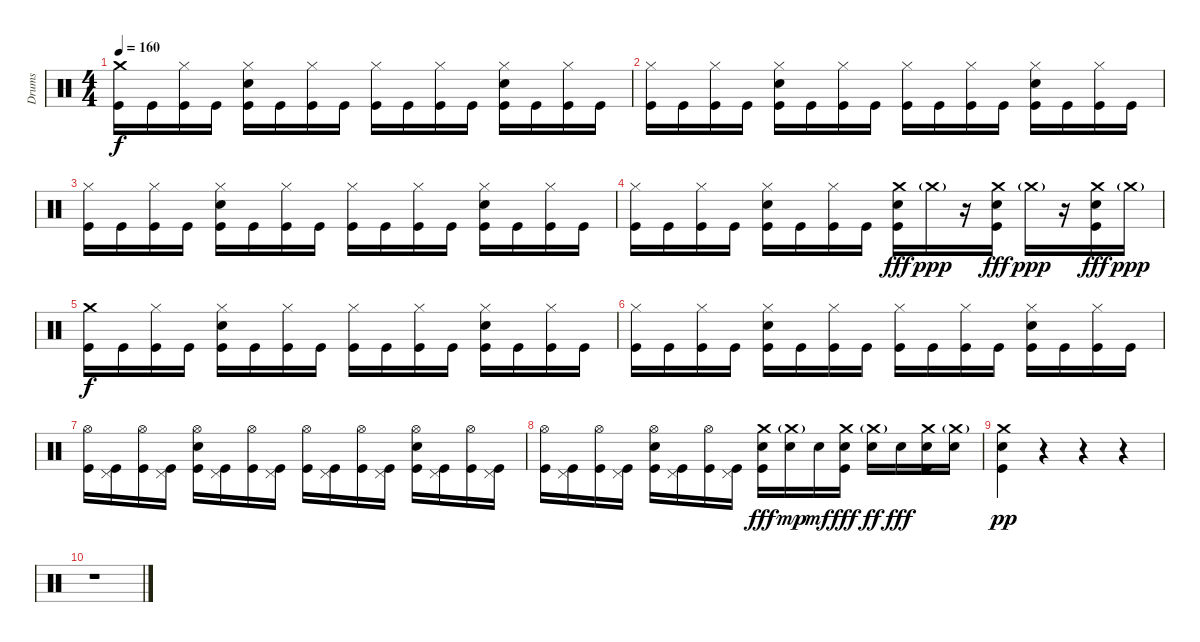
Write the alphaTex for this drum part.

\track ("Drums" "Drums") {instrument percussion}
\staff {score}
\articulation defaults
\ts (4 4)
\tempo 160
\clef neutral
\ks c
("Crash medium (hit)" "Kick (hit)").16{dy f} "Kick (hit)".16 ("Hi-Hat (closed)" "Kick (hit)").16 "Kick (hit)".16 ("Hi-Hat (closed)" "Electric Snare (hit)" "Kick (hit)").16 "Kick (hit)".16 ("Hi-Hat (closed)" "Kick (hit)").16 "Kick (hit)".16 ("Hi-Hat (closed)" "Kick (hit)").16 "Kick (hit)".16 ("Hi-Hat (closed)" "Kick (hit)").16 "Kick (hit)".16 ("Hi-Hat (closed)" "Electric Snare (hit)" "Kick (hit)").16 "Kick (hit)".16 ("Hi-Hat (closed)" "Kick (hit)").16 "Kick (hit)".16 |
("Hi-Hat (closed)" "Kick (hit)").16 "Kick (hit)".16 ("Hi-Hat (closed)" "Kick (hit)").16 "Kick (hit)".16 ("Hi-Hat (closed)" "Electric Snare (hit)" "Kick (hit)").16 "Kick (hit)".16 ("Hi-Hat (closed)" "Kick (hit)").16 "Kick (hit)".16 ("Hi-Hat (closed)" "Kick (hit)").16 "Kick (hit)".16 ("Hi-Hat (closed)" "Kick (hit)").16 "Kick (hit)".16 ("Hi-Hat (closed)" "Electric Snare (hit)" "Kick (hit)").16 "Kick (hit)".16 ("Hi-Hat (closed)" "Kick (hit)").16 "Kick (hit)".16 |
("Hi-Hat (closed)" "Kick (hit)").16 "Kick (hit)".16 ("Hi-Hat (closed)" "Kick (hit)").16 "Kick (hit)".16 ("Hi-Hat (closed)" "Electric Snare (hit)" "Kick (hit)").16 "Kick (hit)".16 ("Hi-Hat (closed)" "Kick (hit)").16 "Kick (hit)".16 ("Hi-Hat (closed)" "Kick (hit)").16 "Kick (hit)".16 ("Hi-Hat (closed)" "Kick (hit)").16 "Kick (hit)".16 ("Hi-Hat (closed)" "Electric Snare (hit)" "Kick (hit)").16 "Kick (hit)".16 ("Hi-Hat (closed)" "Kick (hit)").16 "Kick (hit)".16 |
("Hi-Hat (closed)" "Kick (hit)").16 "Kick (hit)".16 ("Hi-Hat (closed)" "Kick (hit)").16 "Kick (hit)".16 ("Hi-Hat (closed)" "Electric Snare (hit)" "Kick (hit)").16 "Kick (hit)".16 ("Hi-Hat (closed)" "Kick (hit)").16 "Kick (hit)".16 ("Crash medium (hit)" "Electric Snare (hit)" "Kick (hit)").16{dy fff} "Crash medium (hit)"{g}.16{dy ppp} r.16 ("Crash medium (hit)" "Electric Snare (hit)" "Kick (hit)").16{dy fff} "Crash medium (hit)"{g}.16{dy ppp} r.16 ("Crash medium (hit)" "Electric Snare (hit)" "Kick (hit)").16{dy fff} "Crash medium (hit)"{g}.16{dy ppp} |
("Crash medium (hit)" "Kick (hit)").16{dy f} "Kick (hit)".16 ("Hi-Hat (closed)" "Kick (hit)").16 "Kick (hit)".16 ("Hi-Hat (closed)" "Electric Snare (hit)" "Kick (hit)").16 "Kick (hit)".16 ("Hi-Hat (closed)" "Kick (hit)").16 "Kick (hit)".16 ("Hi-Hat (closed)" "Kick (hit)").16 "Kick (hit)".16 ("Hi-Hat (closed)" "Kick (hit)").16 "Kick (hit)".16 ("Hi-Hat (closed)" "Electric Snare (hit)" "Kick (hit)").16 "Kick (hit)".16 ("Hi-Hat (closed)" "Kick (hit)").16 "Kick (hit)".16 |
("Hi-Hat (closed)" "Kick (hit)").16 "Kick (hit)".16 ("Hi-Hat (closed)" "Kick (hit)").16 "Kick (hit)".16 ("Hi-Hat (closed)" "Electric Snare (hit)" "Kick (hit)").16 "Kick (hit)".16 ("Hi-Hat (closed)" "Kick (hit)").16 "Kick (hit)".16 ("Hi-Hat (closed)" "Kick (hit)").16 "Kick (hit)".16 ("Hi-Hat (closed)" "Kick (hit)").16 "Kick (hit)".16 ("Hi-Hat (closed)" "Electric Snare (hit)" "Kick (hit)").16 "Kick (hit)".16 ("Hi-Hat (closed)" "Kick (hit)").16 "Kick (hit)".16 |
("Hi-Hat (open)" "Kick (hit)").16 ("Pedal Hi-Hat (hit)" "Kick (hit)").16 ("Hi-Hat (open)" "Kick (hit)").16 ("Pedal Hi-Hat (hit)" "Kick (hit)").16 ("Hi-Hat (open)" "Electric Snare (hit)" "Kick (hit)").16 ("Pedal Hi-Hat (hit)" "Kick (hit)").16 ("Hi-Hat (open)" "Kick (hit)").16 ("Pedal Hi-Hat (hit)" "Kick (hit)").16 ("Hi-Hat (open)" "Kick (hit)").16 ("Pedal Hi-Hat (hit)" "Kick (hit)").16 ("Hi-Hat (open)" "Kick (hit)").16 ("Pedal Hi-Hat (hit)" "Kick (hit)").16 ("Hi-Hat (open)" "Electric Snare (hit)" "Kick (hit)").16 ("Pedal Hi-Hat (hit)" "Kick (hit)").16 ("Hi-Hat (open)" "Kick (hit)").16 ("Pedal Hi-Hat (hit)" "Kick (hit)").16 |
("Hi-Hat (open)" "Kick (hit)").16 ("Pedal Hi-Hat (hit)" "Kick (hit)").16 ("Hi-Hat (open)" "Kick (hit)").16 ("Pedal Hi-Hat (hit)" "Kick (hit)").16 ("Hi-Hat (open)" "Electric Snare (hit)" "Kick (hit)").16 ("Pedal Hi-Hat (hit)" "Kick (hit)").16 ("Hi-Hat (open)" "Kick (hit)").16 ("Pedal Hi-Hat (hit)" "Kick (hit)").16 ("Crash medium (hit)" "Electric Snare (hit)" "Kick (hit)").16{dy fff} ("Crash medium (hit)"{g} "Electric Snare (hit)").16{dy mp} "Electric Snare (hit)".16{dy mf} ("Crash medium (hit)" "Electric Snare (hit)" "Kick (hit)").16{dy fff} ("Crash medium (hit)"{g} "Electric Snare (hit)").16{dy ff} "Electric Snare (hit)".16{dy fff} ("Crash medium (hit)" "Electric Snare (hit)" "Kick (hit)").16 ("Crash medium (hit)"{g} "Electric Snare (hit)").16 |
("Crash medium (hit)" "Electric Snare (hit)" "Kick (hit)").4{dy pp} r.4 r.4 r.4 |
r.1
